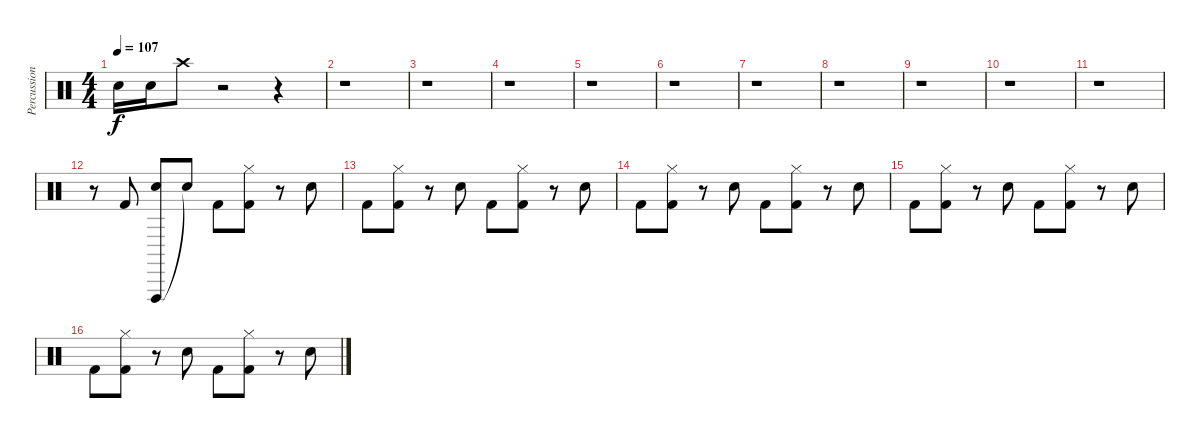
\track ("Percussion" "Percussion") {instrument percussion}
\staff {score}
\articulation defaults
\ts (4 4)
\tempo 107
\clef neutral
\ks c "Electric Snare (hit)".16{dy f} "Electric Snare (hit)".16 "Crash high (hit)".8
r.2 r.4 |
r.1 |
r.1 |
r.1 |
r.1 |
r.1 |
r.1 |
r.1 |
r.1 |
r.1 |
r.1 |
r.8 "Kick (hit) 2".8 ("Vibraslap (hit)" "Electric Snare (hit)").8 "Snare (hit)"{t}.8 "Kick (hit) 2".8 ("Hi-Hat (closed)" "Kick (hit) 2").8 r.8 "Electric Snare (hit)".8 |
"Kick (hit) 2".8 ("Hi-Hat (closed)" "Kick (hit) 2").8 r.8 "Electric Snare (hit)".8 "Kick (hit) 2".8 ("Hi-Hat (closed)" "Kick (hit) 2").8 r.8 "Electric Snare (hit)".8 |
"Kick (hit) 2".8 ("Hi-Hat (closed)" "Kick (hit) 2").8 r.8 "Electric Snare (hit)".8 "Kick (hit) 2".8 ("Hi-Hat (closed)" "Kick (hit) 2").8 r.8 "Electric Snare (hit)".8 |
"Kick (hit) 2".8 ("Hi-Hat (closed)" "Kick (hit) 2").8 r.8 "Electric Snare (hit)".8 "Kick (hit) 2".8 ("Hi-Hat (closed)" "Kick (hit) 2").8 r.8 "Electric Snare (hit)".8 |
"Kick (hit) 2".8 ("Hi-Hat (closed)" "Kick (hit) 2").8 r.8 "Electric Snare (hit)".8 "Kick (hit) 2".8 ("Hi-Hat (closed)" "Kick (hit) 2").8 r.8 "Electric Snare (hit)".8
